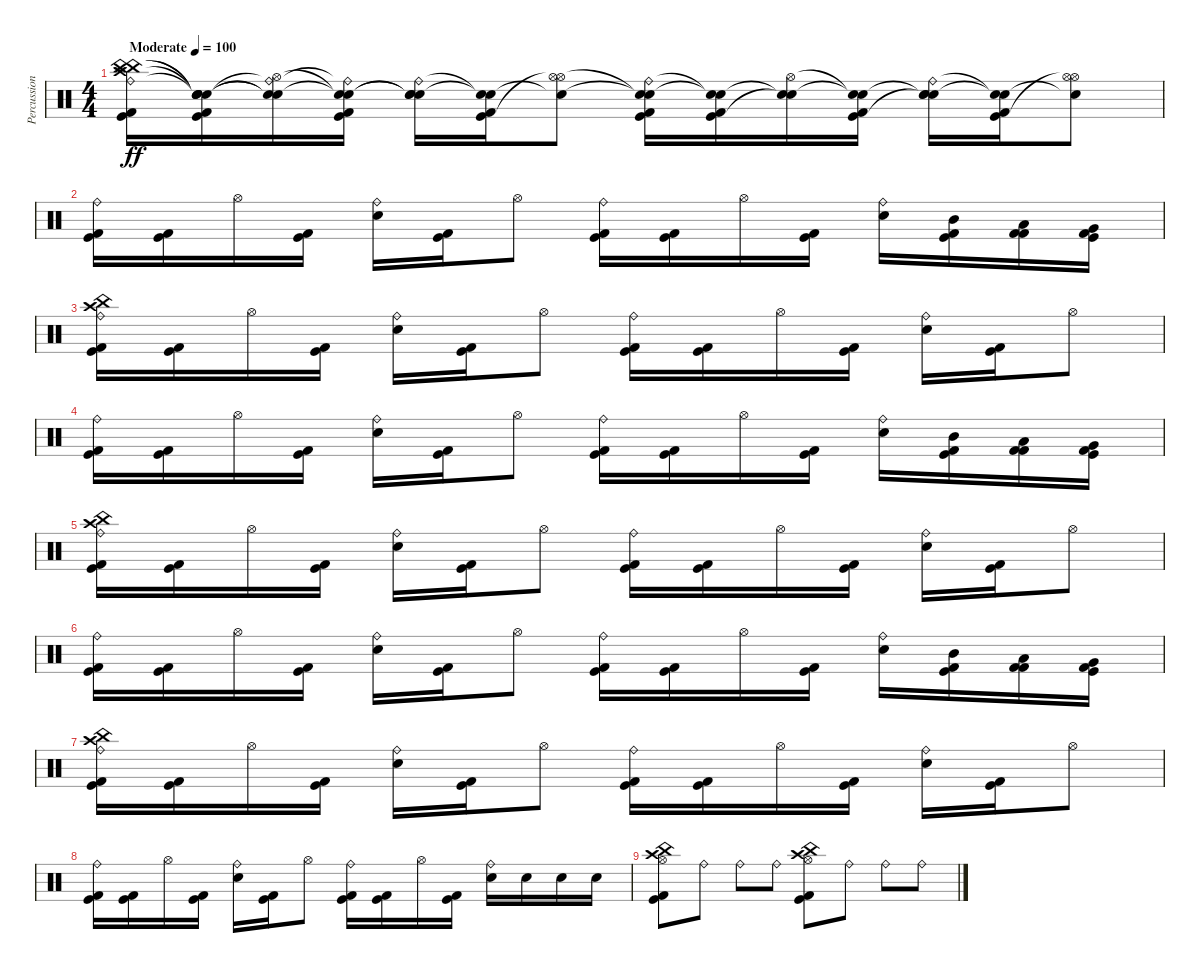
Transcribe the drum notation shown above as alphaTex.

\track ("Percussion" "Percussion") {instrument percussion}
\staff {score}
\articulation defaults
\ts (4 4)
\tempo (100 "Moderate")
\clef neutral
\ks c
("China (hit)" "Crash high (hit)" "Ride (bell)" "China (hit)" "Kick (hit)" "Kick (hit) 2").16{dy ff} ("Snare (hit)"{t} "Snare (hit)"{t} "Snare (hit)"{t} "Snare (hit)"{t} "Kick (hit)" "Kick (hit) 2").16 ("Snare (hit)"{t} "Ride (bell)"{t} "Hi-Hat (open)" "Snare (hit)"{t}).16 ("Snare (hit)"{t} "Ride (bell)"{t} "Snare (hit)"{t} "Kick (hit)" "Kick (hit) 2").16 ("Snare (hit)"{t} "Ride (bell)" "Snare (hit)"{t} "Electric Snare (hit)").16 ("Snare (hit)"{t} "Snare (hit)"{t} "Kick (hit)" "Kick (hit) 2").16 ("Snare (hit)"{t} "Hi-Hat (open)" "Hi-Hat (open)"{t}).8 ("Snare (hit)"{t} "Ride (bell)" "Snare (hit)"{t} "Kick (hit)" "Kick (hit) 2").16 ("Snare (hit)"{t} "Snare (hit)"{t} "Kick (hit)" "Kick (hit) 2").16 ("Snare (hit)"{t} "Hi-Hat (open)" "Snare (hit)"{t}).16 ("Snare (hit)"{t} "Snare (hit)"{t} "Kick (hit)" "Kick (hit) 2").16 ("Snare (hit)"{t} "Ride (bell)" "Snare (hit)"{t} "Electric Snare (hit)").16 ("Snare (hit)"{t} "Snare (hit)"{t} "Kick (hit)" "Kick (hit) 2").16 ("Snare (hit)"{t} "Hi-Hat (open)" "Hi-Hat (open)"{t}).8 |
("Ride (bell)" "Kick (hit)" "Kick (hit) 2").16 ("Kick (hit)" "Kick (hit) 2").16 "Hi-Hat (open)".16 ("Kick (hit)" "Kick (hit) 2").16 ("Ride (bell)" "Electric Snare (hit)").16 ("Kick (hit)" "Kick (hit) 2").16 "Hi-Hat (open)".8 ("Ride (bell)" "Kick (hit)" "Kick (hit) 2").16 ("Kick (hit)" "Kick (hit) 2").16 "Hi-Hat (open)".16 ("Kick (hit)" "Kick (hit) 2").16 ("Ride (bell)" "Electric Snare (hit)").16 ("Mid Tom (hit)" "Kick (hit)" "Kick (hit) 2").16 ("Low Tom (hit)" "Kick (hit) 2" "Kick (hit) 2").16 ("Very Low Tom (hit)" "Kick (hit)" "Kick (hit) 2").16 |
("China (hit)" "Crash high (hit)" "Ride (bell)" "Kick (hit)" "Kick (hit) 2").16 ("Kick (hit)" "Kick (hit) 2").16 "Hi-Hat (open)".16 ("Kick (hit)" "Kick (hit) 2").16 ("Ride (bell)" "Electric Snare (hit)").16 ("Kick (hit)" "Kick (hit) 2").16 "Hi-Hat (open)".8 ("Ride (bell)" "Kick (hit)" "Kick (hit) 2").16 ("Kick (hit)" "Kick (hit) 2").16 "Hi-Hat (open)".16 ("Kick (hit)" "Kick (hit) 2").16 ("Ride (bell)" "Electric Snare (hit)").16 ("Kick (hit)" "Kick (hit) 2").16 "Hi-Hat (open)".8 |
("Ride (bell)" "Kick (hit)" "Kick (hit) 2").16 ("Kick (hit)" "Kick (hit) 2").16 "Hi-Hat (open)".16 ("Kick (hit)" "Kick (hit) 2").16 ("Ride (bell)" "Electric Snare (hit)").16 ("Kick (hit)" "Kick (hit) 2").16 "Hi-Hat (open)".8 ("Ride (bell)" "Kick (hit)" "Kick (hit) 2").16 ("Kick (hit)" "Kick (hit) 2").16 "Hi-Hat (open)".16 ("Kick (hit)" "Kick (hit) 2").16 ("Ride (bell)" "Electric Snare (hit)").16 ("Mid Tom (hit)" "Kick (hit)" "Kick (hit) 2").16 ("Low Tom (hit)" "Kick (hit) 2" "Kick (hit) 2").16 ("Very Low Tom (hit)" "Kick (hit)" "Kick (hit) 2").16 |
("China (hit)" "Crash high (hit)" "Ride (bell)" "Kick (hit)" "Kick (hit) 2").16 ("Kick (hit)" "Kick (hit) 2").16 "Hi-Hat (open)".16 ("Kick (hit)" "Kick (hit) 2").16 ("Ride (bell)" "Electric Snare (hit)").16 ("Kick (hit)" "Kick (hit) 2").16 "Hi-Hat (open)".8 ("Ride (bell)" "Kick (hit)" "Kick (hit) 2").16 ("Kick (hit)" "Kick (hit) 2").16 "Hi-Hat (open)".16 ("Kick (hit)" "Kick (hit) 2").16 ("Ride (bell)" "Electric Snare (hit)").16 ("Kick (hit)" "Kick (hit) 2").16 "Hi-Hat (open)".8 |
("Ride (bell)" "Kick (hit)" "Kick (hit) 2").16 ("Kick (hit)" "Kick (hit) 2").16 "Hi-Hat (open)".16 ("Kick (hit)" "Kick (hit) 2").16 ("Ride (bell)" "Electric Snare (hit)").16 ("Kick (hit)" "Kick (hit) 2").16 "Hi-Hat (open)".8 ("Ride (bell)" "Kick (hit)" "Kick (hit) 2").16 ("Kick (hit)" "Kick (hit) 2").16 "Hi-Hat (open)".16 ("Kick (hit)" "Kick (hit) 2").16 ("Ride (bell)" "Electric Snare (hit)").16 ("Mid Tom (hit)" "Kick (hit)" "Kick (hit) 2").16 ("Low Tom (hit)" "Kick (hit) 2" "Kick (hit) 2").16 ("Very Low Tom (hit)" "Kick (hit)" "Kick (hit) 2").16 |
("China (hit)" "Crash high (hit)" "Ride (bell)" "Kick (hit)" "Kick (hit) 2").16 ("Kick (hit)" "Kick (hit) 2").16 "Hi-Hat (open)".16 ("Kick (hit)" "Kick (hit) 2").16 ("Ride (bell)" "Electric Snare (hit)").16 ("Kick (hit)" "Kick (hit) 2").16 "Hi-Hat (open)".8 ("Ride (bell)" "Kick (hit)" "Kick (hit) 2").16 ("Kick (hit)" "Kick (hit) 2").16 "Hi-Hat (open)".16 ("Kick (hit)" "Kick (hit) 2").16 ("Ride (bell)" "Electric Snare (hit)").16 ("Kick (hit)" "Kick (hit) 2").16 "Hi-Hat (open)".8 |
("Ride (bell)" "Kick (hit)" "Kick (hit) 2").16 ("Kick (hit)" "Kick (hit) 2").16 "Hi-Hat (open)".16 ("Kick (hit)" "Kick (hit) 2").16 ("Ride (bell)" "Electric Snare (hit)").16 ("Kick (hit)" "Kick (hit) 2").16 "Hi-Hat (open)".8 ("Ride (bell)" "Kick (hit)" "Kick (hit) 2").16 ("Kick (hit)" "Kick (hit) 2").16 "Hi-Hat (open)".16 ("Kick (hit)" "Kick (hit) 2").16 ("Ride (bell)" "Electric Snare (hit)").16 "Electric Snare (hit)".16 "Electric Snare (hit)".16 "Electric Snare (hit)".16 |
("China (hit)" "Crash high (hit)" "Hi-Hat (open)" "Kick (hit)" "Kick (hit) 2").8 "Ride (bell)".8 "Ride (bell)".8 "Ride (bell)".8 ("China (hit)" "Crash high (hit)" "Hi-Hat (open)" "Kick (hit)" "Kick (hit) 2").8 "Ride (bell)".8 "Ride (bell)".8 "Ride (bell)".8
